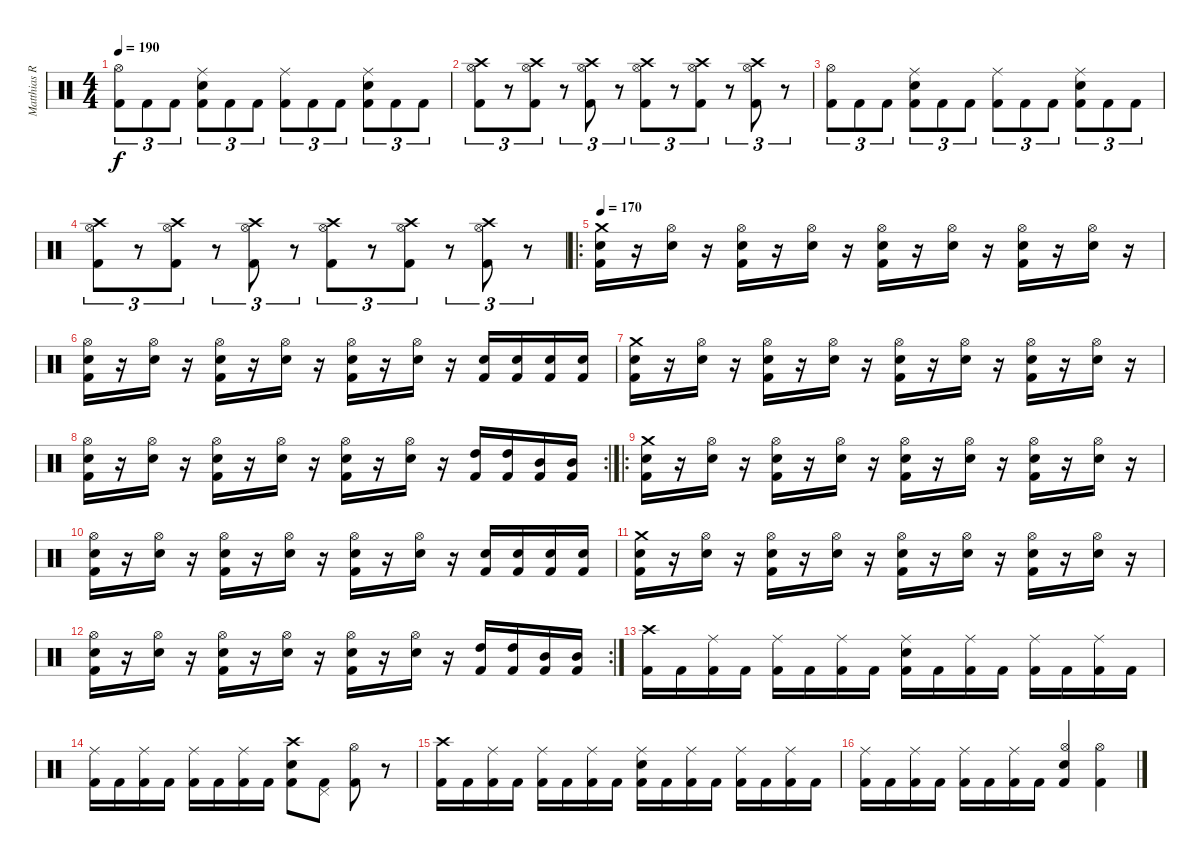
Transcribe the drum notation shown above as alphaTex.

\track ("Matthias R." "Matthias R") {instrument percussion}
\staff {score}
\articulation defaults
\ts (4 4)
\tempo 190
\clef neutral
\ks c
("Kick (hit) 2" "Hi-Hat (open)").8{tu (3 2) dy f} "Kick (hit) 2".8{tu (3 2)} "Kick (hit) 2".8{tu (3 2)} ("Kick (hit) 2" "Snare (hit) 2" "Ride (middle)").8{tu (3 2)} "Kick (hit) 2".8{tu (3 2)} "Kick (hit) 2".8{tu (3 2)} ("Kick (hit) 2" "Ride (middle)").8{tu (3 2)} "Kick (hit) 2".8{tu (3 2)} "Kick (hit) 2".8{tu (3 2)} ("Kick (hit) 2" "Snare (hit) 2" "Ride (middle)").8{tu (3 2)} "Kick (hit) 2".8{tu (3 2)} "Kick (hit) 2".8{tu (3 2)} |
("Kick (hit) 2" "Hi-Hat (open)" "Crash high (hit)").8{tu (3 2)} r.8{tu (3 2)} ("Kick (hit) 2" "Hi-Hat (open)" "Crash high (hit)").8{tu (3 2)} r.8{tu (3 2)} ("Kick (hit) 2" "Hi-Hat (open)" "Crash high (hit)").8{tu (3 2)} r.8{tu (3 2)} ("Kick (hit) 2" "Hi-Hat (open)" "Crash high (hit)").8{tu (3 2)} r.8{tu (3 2)} ("Kick (hit) 2" "Hi-Hat (open)" "Crash high (hit)").8{tu (3 2)} r.8{tu (3 2)} ("Kick (hit) 2" "Hi-Hat (open)" "Crash high (hit)").8{tu (3 2)} r.8{tu (3 2)} |
("Kick (hit) 2" "Hi-Hat (open)").8{tu (3 2)} "Kick (hit) 2".8{tu (3 2)} "Kick (hit) 2".8{tu (3 2)} ("Kick (hit) 2" "Snare (hit) 2" "Ride (middle)").8{tu (3 2)} "Kick (hit) 2".8{tu (3 2)} "Kick (hit) 2".8{tu (3 2)} ("Kick (hit) 2" "Ride (middle)").8{tu (3 2)} "Kick (hit) 2".8{tu (3 2)} "Kick (hit) 2".8{tu (3 2)} ("Kick (hit) 2" "Snare (hit) 2" "Ride (middle)").8{tu (3 2)} "Kick (hit) 2".8{tu (3 2)} "Kick (hit) 2".8{tu (3 2)} |
("Kick (hit) 2" "Hi-Hat (open)" "Crash high (hit)").8{tu (3 2)} r.8{tu (3 2)} ("Kick (hit) 2" "Hi-Hat (open)" "Crash high (hit)").8{tu (3 2)} r.8{tu (3 2)} ("Kick (hit) 2" "Hi-Hat (open)" "Crash high (hit)").8{tu (3 2)} r.8{tu (3 2)} ("Kick (hit) 2" "Hi-Hat (open)" "Crash high (hit)").8{tu (3 2)} r.8{tu (3 2)} ("Kick (hit) 2" "Hi-Hat (open)" "Crash high (hit)").8{tu (3 2)} r.8{tu (3 2)} ("Kick (hit) 2" "Hi-Hat (open)" "Crash high (hit)").8{tu (3 2)} r.8{tu (3 2)} |
\ro
\tempo 170
("Kick (hit) 2" "Snare (hit) 2" "Crash medium (hit)").16 r.16 ("Snare (hit) 2" "Hi-Hat (open)").16 r.16 ("Kick (hit) 2" "Snare (hit) 2" "Hi-Hat (open)").16 r.16 ("Snare (hit) 2" "Hi-Hat (open)").16 r.16 ("Kick (hit) 2" "Snare (hit) 2" "Hi-Hat (open)").16 r.16 ("Snare (hit) 2" "Hi-Hat (open)").16 r.16 ("Kick (hit) 2" "Snare (hit) 2" "Hi-Hat (open)").16 r.16 ("Snare (hit) 2" "Hi-Hat (open)").16 r.16 |
("Kick (hit) 2" "Snare (hit) 2" "Hi-Hat (open)").16 r.16 ("Snare (hit) 2" "Hi-Hat (open)").16 r.16 ("Kick (hit) 2" "Snare (hit) 2" "Hi-Hat (open)").16 r.16 ("Snare (hit) 2" "Hi-Hat (open)").16 r.16 ("Kick (hit) 2" "Snare (hit) 2" "Hi-Hat (open)").16 r.16 ("Snare (hit) 2" "Hi-Hat (open)").16 r.16 ("Kick (hit) 2" "Snare (hit) 2").16 ("Kick (hit) 2" "Snare (hit) 2").16 ("Kick (hit) 2" "Snare (hit) 2").16 ("Kick (hit) 2" "Snare (hit) 2").16 |
("Kick (hit) 2" "Snare (hit) 2" "Crash medium (hit)").16 r.16 ("Snare (hit) 2" "Hi-Hat (open)").16 r.16 ("Kick (hit) 2" "Snare (hit) 2" "Hi-Hat (open)").16 r.16 ("Snare (hit) 2" "Hi-Hat (open)").16 r.16 ("Kick (hit) 2" "Snare (hit) 2" "Hi-Hat (open)").16 r.16 ("Snare (hit) 2" "Hi-Hat (open)").16 r.16 ("Kick (hit) 2" "Snare (hit) 2" "Hi-Hat (open)").16 r.16 ("Snare (hit) 2" "Hi-Hat (open)").16 r.16 |
\rc 2
("Kick (hit) 2" "Snare (hit) 2" "Hi-Hat (open)").16 r.16 ("Snare (hit) 2" "Hi-Hat (open)").16 r.16 ("Kick (hit) 2" "Snare (hit) 2" "Hi-Hat (open)").16 r.16 ("Snare (hit) 2" "Hi-Hat (open)").16 r.16 ("Kick (hit) 2" "Snare (hit) 2" "Hi-Hat (open)").16 r.16 ("Snare (hit) 2" "Hi-Hat (open)").16 r.16 ("Kick (hit) 2" "High Tom (hit)").16 ("Kick (hit) 2" "High Tom (hit)").16 ("Kick (hit) 2" "Mid Tom (hit)").16 ("Kick (hit) 2" "Mid Tom (hit)").16 |
\ro
("Kick (hit) 2" "Snare (hit) 2" "Crash medium (hit)").16 r.16 ("Snare (hit) 2" "Hi-Hat (open)").16 r.16 ("Kick (hit) 2" "Snare (hit) 2" "Hi-Hat (open)").16 r.16 ("Snare (hit) 2" "Hi-Hat (open)").16 r.16 ("Kick (hit) 2" "Snare (hit) 2" "Hi-Hat (open)").16 r.16 ("Snare (hit) 2" "Hi-Hat (open)").16 r.16 ("Kick (hit) 2" "Snare (hit) 2" "Hi-Hat (open)").16 r.16 ("Snare (hit) 2" "Hi-Hat (open)").16 r.16 |
("Kick (hit) 2" "Snare (hit) 2" "Hi-Hat (open)").16 r.16 ("Snare (hit) 2" "Hi-Hat (open)").16 r.16 ("Kick (hit) 2" "Snare (hit) 2" "Hi-Hat (open)").16 r.16 ("Snare (hit) 2" "Hi-Hat (open)").16 r.16 ("Kick (hit) 2" "Snare (hit) 2" "Hi-Hat (open)").16 r.16 ("Snare (hit) 2" "Hi-Hat (open)").16 r.16 ("Kick (hit) 2" "Snare (hit) 2").16 ("Kick (hit) 2" "Snare (hit) 2").16 ("Kick (hit) 2" "Snare (hit) 2").16 ("Kick (hit) 2" "Snare (hit) 2").16 |
("Kick (hit) 2" "Snare (hit) 2" "Crash medium (hit)").16 r.16 ("Snare (hit) 2" "Hi-Hat (open)").16 r.16 ("Kick (hit) 2" "Snare (hit) 2" "Hi-Hat (open)").16 r.16 ("Snare (hit) 2" "Hi-Hat (open)").16 r.16 ("Kick (hit) 2" "Snare (hit) 2" "Hi-Hat (open)").16 r.16 ("Snare (hit) 2" "Hi-Hat (open)").16 r.16 ("Kick (hit) 2" "Snare (hit) 2" "Hi-Hat (open)").16 r.16 ("Snare (hit) 2" "Hi-Hat (open)").16 r.16 |
\rc 2
("Kick (hit) 2" "Snare (hit) 2" "Hi-Hat (open)").16 r.16 ("Snare (hit) 2" "Hi-Hat (open)").16 r.16 ("Kick (hit) 2" "Snare (hit) 2" "Hi-Hat (open)").16 r.16 ("Snare (hit) 2" "Hi-Hat (open)").16 r.16 ("Kick (hit) 2" "Snare (hit) 2" "Hi-Hat (open)").16 r.16 ("Snare (hit) 2" "Hi-Hat (open)").16 r.16 ("Kick (hit) 2" "High Tom (hit)").16 ("Kick (hit) 2" "High Tom (hit)").16 ("Kick (hit) 2" "Mid Tom (hit)").16 ("Kick (hit) 2" "Mid Tom (hit)").16 |
("Kick (hit) 2" "Crash high (hit)").16 "Kick (hit) 2".16 ("Kick (hit) 2" "Ride (middle)").16 "Kick (hit) 2".16 ("Kick (hit) 2" "Ride (middle)").16 "Kick (hit) 2".16 ("Kick (hit) 2" "Ride (middle)").16 "Kick (hit) 2".16 ("Kick (hit) 2" "Snare (hit) 2" "Ride (middle)").16 "Kick (hit) 2".16 ("Kick (hit) 2" "Ride (middle)").16 "Kick (hit) 2".16 ("Kick (hit) 2" "Ride (middle)").16 "Kick (hit) 2".16 ("Kick (hit) 2" "Ride (middle)").16 "Kick (hit) 2".16 |
("Kick (hit) 2" "Ride (middle)").16 "Kick (hit) 2".16 ("Kick (hit) 2" "Ride (middle)").16 "Kick (hit) 2".16 ("Kick (hit) 2" "Ride (middle)").16 "Kick (hit) 2".16 ("Kick (hit) 2" "Ride (middle)").16 "Kick (hit) 2".16 ("Kick (hit) 2" "Snare (hit) 2" "Crash high (hit)").8 ("Kick (hit) 2" "Pedal Hi-Hat (hit)").8 ("Kick (hit) 2" "Hi-Hat (open)").8 r.8 |
("Kick (hit) 2" "Crash high (hit)").16 "Kick (hit) 2".16 ("Kick (hit) 2" "Ride (middle)").16 "Kick (hit) 2".16 ("Kick (hit) 2" "Ride (middle)").16 "Kick (hit) 2".16 ("Kick (hit) 2" "Ride (middle)").16 "Kick (hit) 2".16 ("Kick (hit) 2" "Snare (hit) 2" "Ride (middle)").16 "Kick (hit) 2".16 ("Kick (hit) 2" "Ride (middle)").16 "Kick (hit) 2".16 ("Kick (hit) 2" "Ride (middle)").16 "Kick (hit) 2".16 ("Kick (hit) 2" "Ride (middle)").16 "Kick (hit) 2".16 |
("Kick (hit) 2" "Ride (middle)").16 "Kick (hit) 2".16 ("Kick (hit) 2" "Ride (middle)").16 "Kick (hit) 2".16 ("Kick (hit) 2" "Ride (middle)").16 "Kick (hit) 2".16 ("Kick (hit) 2" "Ride (middle)").16 "Kick (hit) 2".16 ("Kick (hit) 2" "Snare (hit) 2" "Hi-Hat (open)").4 ("Kick (hit) 2" "Hi-Hat (open)").4
